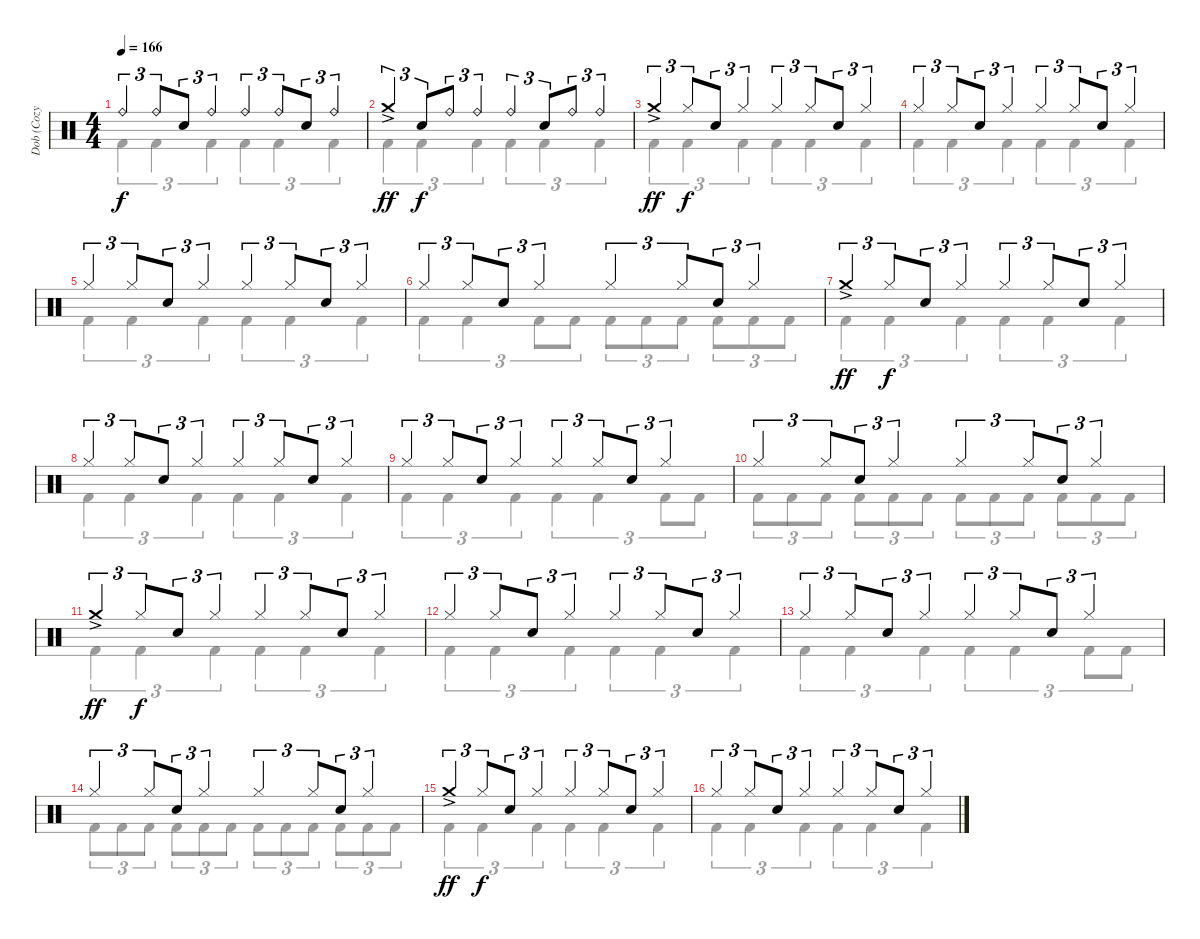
\track ("Dob (Cozy Powell)" "Dob (Cozy ") {instrument percussion}
\staff {score}
\articulation defaults
\voice
\ts (4 4)
\tempo 166
\clef neutral
\ks c "Ride (bell)".4{tu (3 2) dy f} "Ride (bell)".8{tu (3 2) beam merge} "Electric Snare (hit)".8{tu (3 2)} "Ride (bell)".4{tu (3 2)} "Ride (bell)".4{tu (3 2)} "Ride (bell)".8{tu (3 2) beam merge} "Electric Snare (hit)".8{tu (3 2)} "Ride (bell)".4{tu (3 2)}
|
"Crash medium (hit)"{ac}.4{tu (3 2) dy ff} "Electric Snare (hit)".8{tu (3 2) dy f beam merge} "Ride (bell)".8{tu (3 2)} "Ride (bell)".4{tu (3 2)} "Ride (bell)".4{tu (3 2)} "Electric Snare (hit)".8{tu (3 2) beam merge} "Ride (bell)".8{tu (3 2)} "Ride (bell)".4{tu (3 2)} |
"Crash medium (hit)"{ac}.4{tu (3 2) dy ff} "Hi-Hat (closed)".8{tu (3 2) dy f beam merge} "Electric Snare (hit)".8{tu (3 2)} "Hi-Hat (closed)".4{tu (3 2)} "Hi-Hat (closed)".4{tu (3 2)} "Hi-Hat (closed)".8{tu (3 2) beam merge} "Electric Snare (hit)".8{tu (3 2)} "Hi-Hat (closed)".4{tu (3 2)} |
"Hi-Hat (closed)".4{tu (3 2)} "Hi-Hat (closed)".8{tu (3 2) beam merge} "Electric Snare (hit)".8{tu (3 2)} "Hi-Hat (closed)".4{tu (3 2)} "Hi-Hat (closed)".4{tu (3 2)} "Hi-Hat (closed)".8{tu (3 2) beam merge} "Electric Snare (hit)".8{tu (3 2)} "Hi-Hat (closed)".4{tu (3 2)} |
"Hi-Hat (closed)".4{tu (3 2)} "Hi-Hat (closed)".8{tu (3 2) beam merge} "Electric Snare (hit)".8{tu (3 2)} "Hi-Hat (closed)".4{tu (3 2)} "Hi-Hat (closed)".4{tu (3 2)} "Hi-Hat (closed)".8{tu (3 2) beam merge} "Electric Snare (hit)".8{tu (3 2)} "Hi-Hat (closed)".4{tu (3 2)} |
"Hi-Hat (closed)".4{tu (3 2)} "Hi-Hat (closed)".8{tu (3 2) beam merge} "Electric Snare (hit)".8{tu (3 2)} "Hi-Hat (closed)".4{tu (3 2)} "Hi-Hat (closed)".4{tu (3 2)} "Hi-Hat (closed)".8{tu (3 2) beam merge} "Electric Snare (hit)".8{tu (3 2)} "Hi-Hat (closed)".4{tu (3 2)} |
"Crash medium (hit)"{ac}.4{tu (3 2) dy ff} "Hi-Hat (closed)".8{tu (3 2) dy f beam merge} "Electric Snare (hit)".8{tu (3 2)} "Hi-Hat (closed)".4{tu (3 2)} "Hi-Hat (closed)".4{tu (3 2)} "Hi-Hat (closed)".8{tu (3 2) beam merge} "Electric Snare (hit)".8{tu (3 2)} "Hi-Hat (closed)".4{tu (3 2)} |
"Hi-Hat (closed)".4{tu (3 2)} "Hi-Hat (closed)".8{tu (3 2) beam merge} "Electric Snare (hit)".8{tu (3 2)} "Hi-Hat (closed)".4{tu (3 2)} "Hi-Hat (closed)".4{tu (3 2)} "Hi-Hat (closed)".8{tu (3 2) beam merge} "Electric Snare (hit)".8{tu (3 2)} "Hi-Hat (closed)".4{tu (3 2)} |
"Hi-Hat (closed)".4{tu (3 2)} "Hi-Hat (closed)".8{tu (3 2) beam merge} "Electric Snare (hit)".8{tu (3 2)} "Hi-Hat (closed)".4{tu (3 2)} "Hi-Hat (closed)".4{tu (3 2)} "Hi-Hat (closed)".8{tu (3 2) beam merge} "Electric Snare (hit)".8{tu (3 2)} "Hi-Hat (closed)".4{tu (3 2)} |
"Hi-Hat (closed)".4{tu (3 2)} "Hi-Hat (closed)".8{tu (3 2) beam merge} "Electric Snare (hit)".8{tu (3 2)} "Hi-Hat (closed)".4{tu (3 2)} "Hi-Hat (closed)".4{tu (3 2)} "Hi-Hat (closed)".8{tu (3 2) beam merge} "Electric Snare (hit)".8{tu (3 2)} "Hi-Hat (closed)".4{tu (3 2)} |
"Crash medium (hit)"{ac}.4{tu (3 2) dy ff} "Hi-Hat (closed)".8{tu (3 2) dy f beam merge} "Electric Snare (hit)".8{tu (3 2)} "Hi-Hat (closed)".4{tu (3 2)} "Hi-Hat (closed)".4{tu (3 2)} "Hi-Hat (closed)".8{tu (3 2) beam merge} "Electric Snare (hit)".8{tu (3 2)} "Hi-Hat (closed)".4{tu (3 2)} |
"Hi-Hat (closed)".4{tu (3 2)} "Hi-Hat (closed)".8{tu (3 2) beam merge} "Electric Snare (hit)".8{tu (3 2)} "Hi-Hat (closed)".4{tu (3 2)} "Hi-Hat (closed)".4{tu (3 2)} "Hi-Hat (closed)".8{tu (3 2) beam merge} "Electric Snare (hit)".8{tu (3 2)} "Hi-Hat (closed)".4{tu (3 2)} |
"Hi-Hat (closed)".4{tu (3 2)} "Hi-Hat (closed)".8{tu (3 2) beam merge} "Electric Snare (hit)".8{tu (3 2)} "Hi-Hat (closed)".4{tu (3 2)} "Hi-Hat (closed)".4{tu (3 2)} "Hi-Hat (closed)".8{tu (3 2) beam merge} "Electric Snare (hit)".8{tu (3 2)} "Hi-Hat (closed)".4{tu (3 2)} |
"Hi-Hat (closed)".4{tu (3 2)} "Hi-Hat (closed)".8{tu (3 2) beam merge} "Electric Snare (hit)".8{tu (3 2)} "Hi-Hat (closed)".4{tu (3 2)} "Hi-Hat (closed)".4{tu (3 2)} "Hi-Hat (closed)".8{tu (3 2) beam merge} "Electric Snare (hit)".8{tu (3 2)} "Hi-Hat (closed)".4{tu (3 2)} |
"Crash medium (hit)"{ac}.4{tu (3 2) dy ff} "Hi-Hat (closed)".8{tu (3 2) dy f beam merge} "Electric Snare (hit)".8{tu (3 2)} "Hi-Hat (closed)".4{tu (3 2)} "Hi-Hat (closed)".4{tu (3 2)} "Hi-Hat (closed)".8{tu (3 2) beam merge} "Electric Snare (hit)".8{tu (3 2)} "Hi-Hat (closed)".4{tu (3 2)} |
"Hi-Hat (closed)".4{tu (3 2)} "Hi-Hat (closed)".8{tu (3 2) beam merge} "Electric Snare (hit)".8{tu (3 2)} "Hi-Hat (closed)".4{tu (3 2)} "Hi-Hat (closed)".4{tu (3 2)} "Hi-Hat (closed)".8{tu (3 2) beam merge} "Electric Snare (hit)".8{tu (3 2)} "Hi-Hat (closed)".4{tu (3 2)}
\voice
\clef neutral
\ottava regular
\simile none
\ks c "Kick (hit) 2".4{tu (3 2) dy f} "Kick (hit) 2".4{tu (3 2)} "Kick (hit) 2".4{tu (3 2)} "Kick (hit) 2".4{tu (3 2)} "Kick (hit) 2".4{tu (3 2)} "Kick (hit) 2".4{tu (3 2)}
|
"Kick (hit) 2".4{tu (3 2)} "Kick (hit) 2".4{tu (3 2)} "Kick (hit) 2".4{tu (3 2)} "Kick (hit) 2".4{tu (3 2)} "Kick (hit) 2".4{tu (3 2)} "Kick (hit) 2".4{tu (3 2)} |
"Kick (hit) 2".4{tu (3 2)} "Kick (hit) 2".4{tu (3 2)} "Kick (hit) 2".4{tu (3 2)} "Kick (hit) 2".4{tu (3 2)} "Kick (hit) 2".4{tu (3 2)} "Kick (hit) 2".4{tu (3 2)} |
"Kick (hit) 2".4{tu (3 2)} "Kick (hit) 2".4{tu (3 2)} "Kick (hit) 2".4{tu (3 2)} "Kick (hit) 2".4{tu (3 2)} "Kick (hit) 2".4{tu (3 2)} "Kick (hit) 2".4{tu (3 2)} |
"Kick (hit) 2".4{tu (3 2)} "Kick (hit) 2".4{tu (3 2)} "Kick (hit) 2".4{tu (3 2)} "Kick (hit) 2".4{tu (3 2)} "Kick (hit) 2".4{tu (3 2)} "Kick (hit) 2".4{tu (3 2)} |
"Kick (hit) 2".4{tu (3 2)} "Kick (hit) 2".4{tu (3 2)} "Kick (hit) 2".8{tu (3 2)} "Kick (hit) 2".8{tu (3 2)} "Kick (hit) 2".8{tu (3 2)} "Kick (hit) 2".8{tu (3 2)} "Kick (hit) 2".8{tu (3 2)} "Kick (hit) 2".8{tu (3 2)} "Kick (hit) 2".8{tu (3 2)} "Kick (hit) 2".8{tu (3 2)} |
"Kick (hit) 2".4{tu (3 2)} "Kick (hit) 2".4{tu (3 2)} "Kick (hit) 2".4{tu (3 2)} "Kick (hit) 2".4{tu (3 2)} "Kick (hit) 2".4{tu (3 2)} "Kick (hit) 2".4{tu (3 2)} |
"Kick (hit) 2".4{tu (3 2)} "Kick (hit) 2".4{tu (3 2)} "Kick (hit) 2".4{tu (3 2)} "Kick (hit) 2".4{tu (3 2)} "Kick (hit) 2".4{tu (3 2)} "Kick (hit) 2".4{tu (3 2)} |
"Kick (hit) 2".4{tu (3 2)} "Kick (hit) 2".4{tu (3 2)} "Kick (hit) 2".4{tu (3 2)} "Kick (hit) 2".4{tu (3 2)} "Kick (hit) 2".4{tu (3 2)} "Kick (hit) 2".8{tu (3 2)} "Kick (hit) 2".8{tu (3 2)} |
"Kick (hit) 2".8{tu (3 2)} "Kick (hit) 2".8{tu (3 2)} "Kick (hit) 2".8{tu (3 2)} "Kick (hit) 2".8{tu (3 2)} "Kick (hit) 2".8{tu (3 2)} "Kick (hit) 2".8{tu (3 2)} "Kick (hit) 2".8{tu (3 2)} "Kick (hit) 2".8{tu (3 2)} "Kick (hit) 2".8{tu (3 2)} "Kick (hit) 2".8{tu (3 2)} "Kick (hit) 2".8{tu (3 2)} "Kick (hit) 2".8{tu (3 2)} |
"Kick (hit) 2".4{tu (3 2)} "Kick (hit) 2".4{tu (3 2)} "Kick (hit) 2".4{tu (3 2)} "Kick (hit) 2".4{tu (3 2)} "Kick (hit) 2".4{tu (3 2)} "Kick (hit) 2".4{tu (3 2)} |
"Kick (hit) 2".4{tu (3 2)} "Kick (hit) 2".4{tu (3 2)} "Kick (hit) 2".4{tu (3 2)} "Kick (hit) 2".4{tu (3 2)} "Kick (hit) 2".4{tu (3 2)} "Kick (hit) 2".4{tu (3 2)} |
"Kick (hit) 2".4{tu (3 2)} "Kick (hit) 2".4{tu (3 2)} "Kick (hit) 2".4{tu (3 2)} "Kick (hit) 2".4{tu (3 2)} "Kick (hit) 2".4{tu (3 2)} "Kick (hit) 2".8{tu (3 2)} "Kick (hit) 2".8{tu (3 2)} |
"Kick (hit) 2".8{tu (3 2)} "Kick (hit) 2".8{tu (3 2)} "Kick (hit) 2".8{tu (3 2)} "Kick (hit) 2".8{tu (3 2)} "Kick (hit) 2".8{tu (3 2)} "Kick (hit) 2".8{tu (3 2)} "Kick (hit) 2".8{tu (3 2)} "Kick (hit) 2".8{tu (3 2)} "Kick (hit) 2".8{tu (3 2)} "Kick (hit) 2".8{tu (3 2)} "Kick (hit) 2".8{tu (3 2)} "Kick (hit) 2".8{tu (3 2)} |
"Kick (hit) 2".4{tu (3 2)} "Kick (hit) 2".4{tu (3 2)} "Kick (hit) 2".4{tu (3 2)} "Kick (hit) 2".4{tu (3 2)} "Kick (hit) 2".4{tu (3 2)} "Kick (hit) 2".4{tu (3 2)} |
"Kick (hit) 2".4{tu (3 2)} "Kick (hit) 2".4{tu (3 2)} "Kick (hit) 2".4{tu (3 2)} "Kick (hit) 2".4{tu (3 2)} "Kick (hit) 2".4{tu (3 2)} "Kick (hit) 2".4{tu (3 2)}
